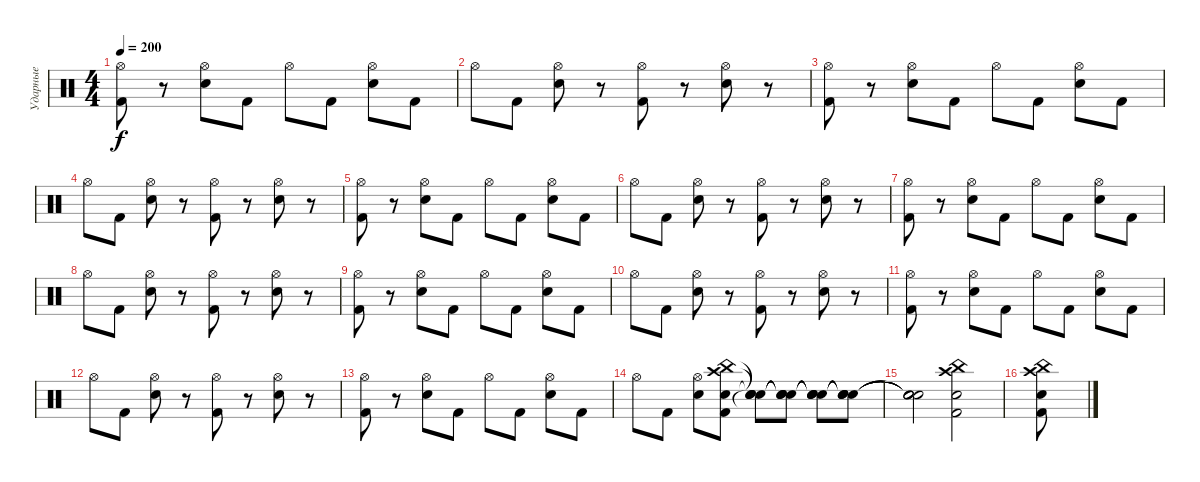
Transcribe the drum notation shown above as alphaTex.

\track ("Ударные" "Ударные") {instrument percussion}
\staff {score}
\articulation defaults
\ts (4 4)
\tempo 200
\clef neutral
\ks c
("Kick (hit) 2" "Hi-Hat (open)").8{dy f} r.8 ("Electric Snare (hit)" "Hi-Hat (open)").8 "Kick (hit) 2".8 "Hi-Hat (open)".8 "Kick (hit) 2".8 ("Electric Snare (hit)" "Hi-Hat (open)").8 "Kick (hit) 2".8 |
"Hi-Hat (open)".8 "Kick (hit) 2".8 ("Electric Snare (hit)" "Hi-Hat (open)").8 r.8 ("Kick (hit) 2" "Hi-Hat (open)").8 r.8 ("Electric Snare (hit)" "Hi-Hat (open)").8 r.8 |
("Kick (hit) 2" "Hi-Hat (open)").8 r.8 ("Electric Snare (hit)" "Hi-Hat (open)").8 "Kick (hit) 2".8 "Hi-Hat (open)".8 "Kick (hit) 2".8 ("Electric Snare (hit)" "Hi-Hat (open)").8 "Kick (hit) 2".8 |
"Hi-Hat (open)".8 "Kick (hit) 2".8 ("Electric Snare (hit)" "Hi-Hat (open)").8 r.8 ("Kick (hit) 2" "Hi-Hat (open)").8 r.8 ("Electric Snare (hit)" "Hi-Hat (open)").8 r.8 |
("Kick (hit) 2" "Hi-Hat (open)").8 r.8 ("Electric Snare (hit)" "Hi-Hat (open)").8 "Kick (hit) 2".8 "Hi-Hat (open)".8 "Kick (hit) 2".8 ("Electric Snare (hit)" "Hi-Hat (open)").8 "Kick (hit) 2".8 |
"Hi-Hat (open)".8 "Kick (hit) 2".8 ("Electric Snare (hit)" "Hi-Hat (open)").8 r.8 ("Kick (hit) 2" "Hi-Hat (open)").8 r.8 ("Electric Snare (hit)" "Hi-Hat (open)").8 r.8 |
("Kick (hit) 2" "Hi-Hat (open)").8 r.8 ("Electric Snare (hit)" "Hi-Hat (open)").8 "Kick (hit) 2".8 "Hi-Hat (open)".8 "Kick (hit) 2".8 ("Electric Snare (hit)" "Hi-Hat (open)").8 "Kick (hit) 2".8 |
"Hi-Hat (open)".8 "Kick (hit) 2".8 ("Electric Snare (hit)" "Hi-Hat (open)").8 r.8 ("Kick (hit) 2" "Hi-Hat (open)").8 r.8 ("Electric Snare (hit)" "Hi-Hat (open)").8 r.8 |
("Kick (hit) 2" "Hi-Hat (open)").8 r.8 ("Electric Snare (hit)" "Hi-Hat (open)").8 "Kick (hit) 2".8 "Hi-Hat (open)".8 "Kick (hit) 2".8 ("Electric Snare (hit)" "Hi-Hat (open)").8 "Kick (hit) 2".8 |
"Hi-Hat (open)".8 "Kick (hit) 2".8 ("Electric Snare (hit)" "Hi-Hat (open)").8 r.8 ("Kick (hit) 2" "Hi-Hat (open)").8 r.8 ("Electric Snare (hit)" "Hi-Hat (open)").8 r.8 |
("Kick (hit) 2" "Hi-Hat (open)").8 r.8 ("Electric Snare (hit)" "Hi-Hat (open)").8 "Kick (hit) 2".8 "Hi-Hat (open)".8 "Kick (hit) 2".8 ("Electric Snare (hit)" "Hi-Hat (open)").8 "Kick (hit) 2".8 |
"Hi-Hat (open)".8 "Kick (hit) 2".8 ("Electric Snare (hit)" "Hi-Hat (open)").8 r.8 ("Kick (hit) 2" "Hi-Hat (open)").8 r.8 ("Electric Snare (hit)" "Hi-Hat (open)").8 r.8 |
("Kick (hit) 2" "Hi-Hat (open)").8 r.8 ("Electric Snare (hit)" "Hi-Hat (open)").8 "Kick (hit) 2".8 "Hi-Hat (open)".8 "Kick (hit) 2".8 ("Electric Snare (hit)" "Hi-Hat (open)").8 "Kick (hit) 2".8 |
"Hi-Hat (open)".8 "Kick (hit) 2".8 ("Electric Snare (hit)" "Hi-Hat (open)").8 ("Kick (hit) 2" "Electric Snare (hit)" "Crash high (hit)" "China (hit)").8 ("Snare (hit)"{t} "Snare (hit)"{t} "Snare (hit)"{t} "Snare (hit)"{t}).8 ("Snare (hit)"{t} "Snare (hit)"{t} "Snare (hit)"{t} "Snare (hit)"{t}).8 ("Snare (hit)"{t} "Snare (hit)"{t} "Snare (hit)"{t} "Snare (hit)"{t}).8 ("Snare (hit)"{t} "Snare (hit)"{t} "Snare (hit)"{t} "Snare (hit)"{t}).8 |
("Snare (hit)"{t} "Snare (hit)"{t} "Snare (hit)"{t} "Snare (hit)"{t}).2 ("Kick (hit) 2" "Electric Snare (hit)" "China (hit)" "Crash high (hit)").2 |
("Crash high (hit)" "China (hit)" "Electric Snare (hit)" "Kick (hit) 2").8
